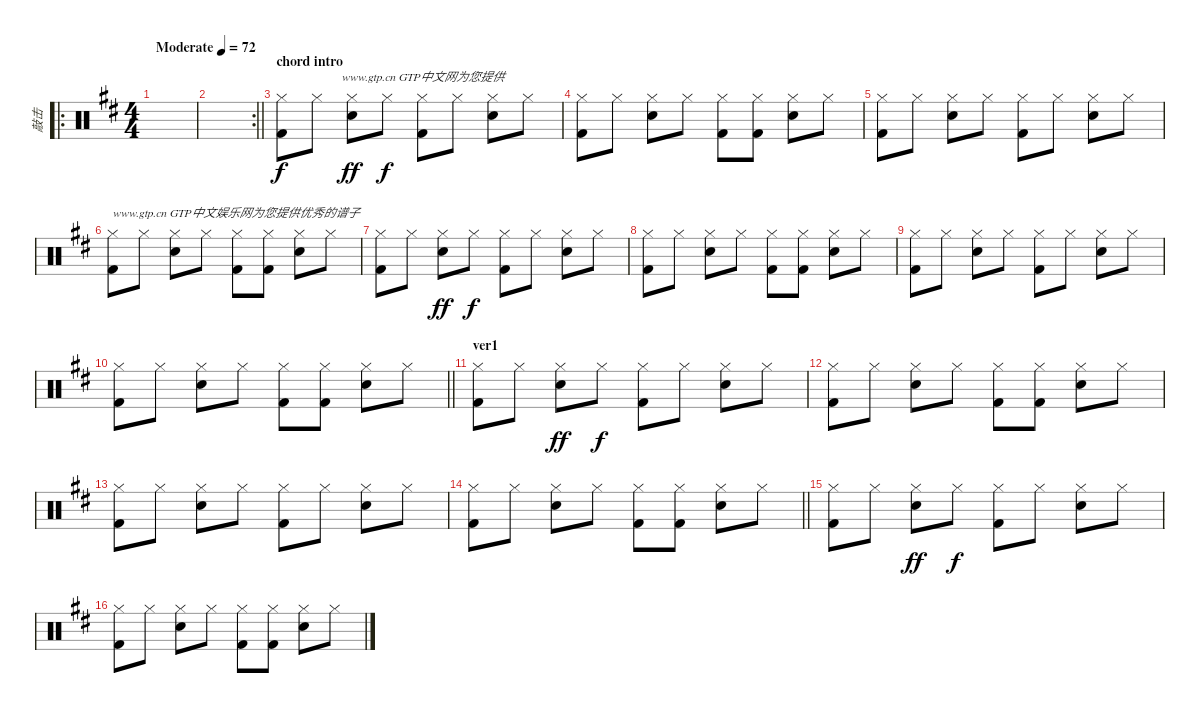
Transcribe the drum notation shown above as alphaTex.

\track ("敲击" "敲击") {instrument percussion}
\staff {score}
\articulation defaults
\ro
\ts (4 4)
\tempo (72 "Moderate")
\clef neutral
\ks d
|
\rc 2
\barLineRight lightlight
|
\section ("" "chord intro")
("Hi-Hat (closed)" "Kick (hit) 2").8{txt "                    www.gtp.cn GTP中文网为您提供"} "Hi-Hat (closed)".8 ("Hi-Hat (closed)" "Snare (hit) 2").8{dy ff} "Hi-Hat (closed)".8{dy f} ("Hi-Hat (closed)" "Kick (hit) 2").8 "Hi-Hat (closed)".8 ("Hi-Hat (closed)" "Snare (hit) 2").8 "Hi-Hat (closed)".8 |
("Hi-Hat (closed)" "Kick (hit) 2").8 "Hi-Hat (closed)".8 ("Hi-Hat (closed)" "Snare (hit) 2").8 "Hi-Hat (closed)".8 ("Hi-Hat (closed)" "Kick (hit) 2").8 ("Hi-Hat (closed)" "Kick (hit) 2").8 ("Hi-Hat (closed)" "Snare (hit) 2").8 "Hi-Hat (closed)".8 |
("Hi-Hat (closed)" "Kick (hit) 2").8 "Hi-Hat (closed)".8 ("Hi-Hat (closed)" "Snare (hit) 2").8 "Hi-Hat (closed)".8 ("Hi-Hat (closed)" "Kick (hit) 2").8 "Hi-Hat (closed)".8 ("Hi-Hat (closed)" "Snare (hit) 2").8 "Hi-Hat (closed)".8 |
("Hi-Hat (closed)" "Kick (hit) 2").8{txt "www.gtp.cn GTP中文娱乐网为您提供优秀的谱子"} "Hi-Hat (closed)".8 ("Hi-Hat (closed)" "Snare (hit) 2").8 "Hi-Hat (closed)".8 ("Hi-Hat (closed)" "Kick (hit) 2").8 ("Hi-Hat (closed)" "Kick (hit) 2").8 ("Hi-Hat (closed)" "Snare (hit) 2").8 "Hi-Hat (closed)".8 |
("Hi-Hat (closed)" "Kick (hit) 2").8 "Hi-Hat (closed)".8 ("Hi-Hat (closed)" "Snare (hit) 2").8{dy ff} "Hi-Hat (closed)".8{dy f} ("Hi-Hat (closed)" "Kick (hit) 2").8 "Hi-Hat (closed)".8 ("Hi-Hat (closed)" "Snare (hit) 2").8 "Hi-Hat (closed)".8 |
("Hi-Hat (closed)" "Kick (hit) 2").8 "Hi-Hat (closed)".8 ("Hi-Hat (closed)" "Snare (hit) 2").8 "Hi-Hat (closed)".8 ("Hi-Hat (closed)" "Kick (hit) 2").8 ("Hi-Hat (closed)" "Kick (hit) 2").8 ("Hi-Hat (closed)" "Snare (hit) 2").8 "Hi-Hat (closed)".8 |
("Hi-Hat (closed)" "Kick (hit) 2").8 "Hi-Hat (closed)".8 ("Hi-Hat (closed)" "Snare (hit) 2").8 "Hi-Hat (closed)".8 ("Hi-Hat (closed)" "Kick (hit) 2").8 "Hi-Hat (closed)".8 ("Hi-Hat (closed)" "Snare (hit) 2").8 "Hi-Hat (closed)".8 |
\barLineRight lightlight
("Hi-Hat (closed)" "Kick (hit) 2").8 "Hi-Hat (closed)".8 ("Hi-Hat (closed)" "Snare (hit) 2").8 "Hi-Hat (closed)".8 ("Hi-Hat (closed)" "Kick (hit) 2").8 ("Hi-Hat (closed)" "Kick (hit) 2").8 ("Hi-Hat (closed)" "Snare (hit) 2").8 "Hi-Hat (closed)".8 |
\section ("" "ver1")
("Hi-Hat (closed)" "Kick (hit) 2").8 "Hi-Hat (closed)".8 ("Hi-Hat (closed)" "Snare (hit) 2").8{dy ff} "Hi-Hat (closed)".8{dy f} ("Hi-Hat (closed)" "Kick (hit) 2").8 "Hi-Hat (closed)".8 ("Hi-Hat (closed)" "Snare (hit) 2").8 "Hi-Hat (closed)".8 |
("Hi-Hat (closed)" "Kick (hit) 2").8 "Hi-Hat (closed)".8 ("Hi-Hat (closed)" "Snare (hit) 2").8 "Hi-Hat (closed)".8 ("Hi-Hat (closed)" "Kick (hit) 2").8 ("Hi-Hat (closed)" "Kick (hit) 2").8 ("Hi-Hat (closed)" "Snare (hit) 2").8 "Hi-Hat (closed)".8 |
("Hi-Hat (closed)" "Kick (hit) 2").8 "Hi-Hat (closed)".8 ("Hi-Hat (closed)" "Snare (hit) 2").8 "Hi-Hat (closed)".8 ("Hi-Hat (closed)" "Kick (hit) 2").8 "Hi-Hat (closed)".8 ("Hi-Hat (closed)" "Snare (hit) 2").8 "Hi-Hat (closed)".8 |
\barLineRight lightlight
("Hi-Hat (closed)" "Kick (hit) 2").8 "Hi-Hat (closed)".8 ("Hi-Hat (closed)" "Snare (hit) 2").8 "Hi-Hat (closed)".8 ("Hi-Hat (closed)" "Kick (hit) 2").8 ("Hi-Hat (closed)" "Kick (hit) 2").8 ("Hi-Hat (closed)" "Snare (hit) 2").8 "Hi-Hat (closed)".8 |
("Hi-Hat (closed)" "Kick (hit) 2").8 "Hi-Hat (closed)".8 ("Hi-Hat (closed)" "Snare (hit) 2").8{dy ff} "Hi-Hat (closed)".8{dy f} ("Hi-Hat (closed)" "Kick (hit) 2").8 "Hi-Hat (closed)".8 ("Hi-Hat (closed)" "Snare (hit) 2").8 "Hi-Hat (closed)".8 |
("Hi-Hat (closed)" "Kick (hit) 2").8 "Hi-Hat (closed)".8 ("Hi-Hat (closed)" "Snare (hit) 2").8 "Hi-Hat (closed)".8 ("Hi-Hat (closed)" "Kick (hit) 2").8 ("Hi-Hat (closed)" "Kick (hit) 2").8 ("Hi-Hat (closed)" "Snare (hit) 2").8 "Hi-Hat (closed)".8
